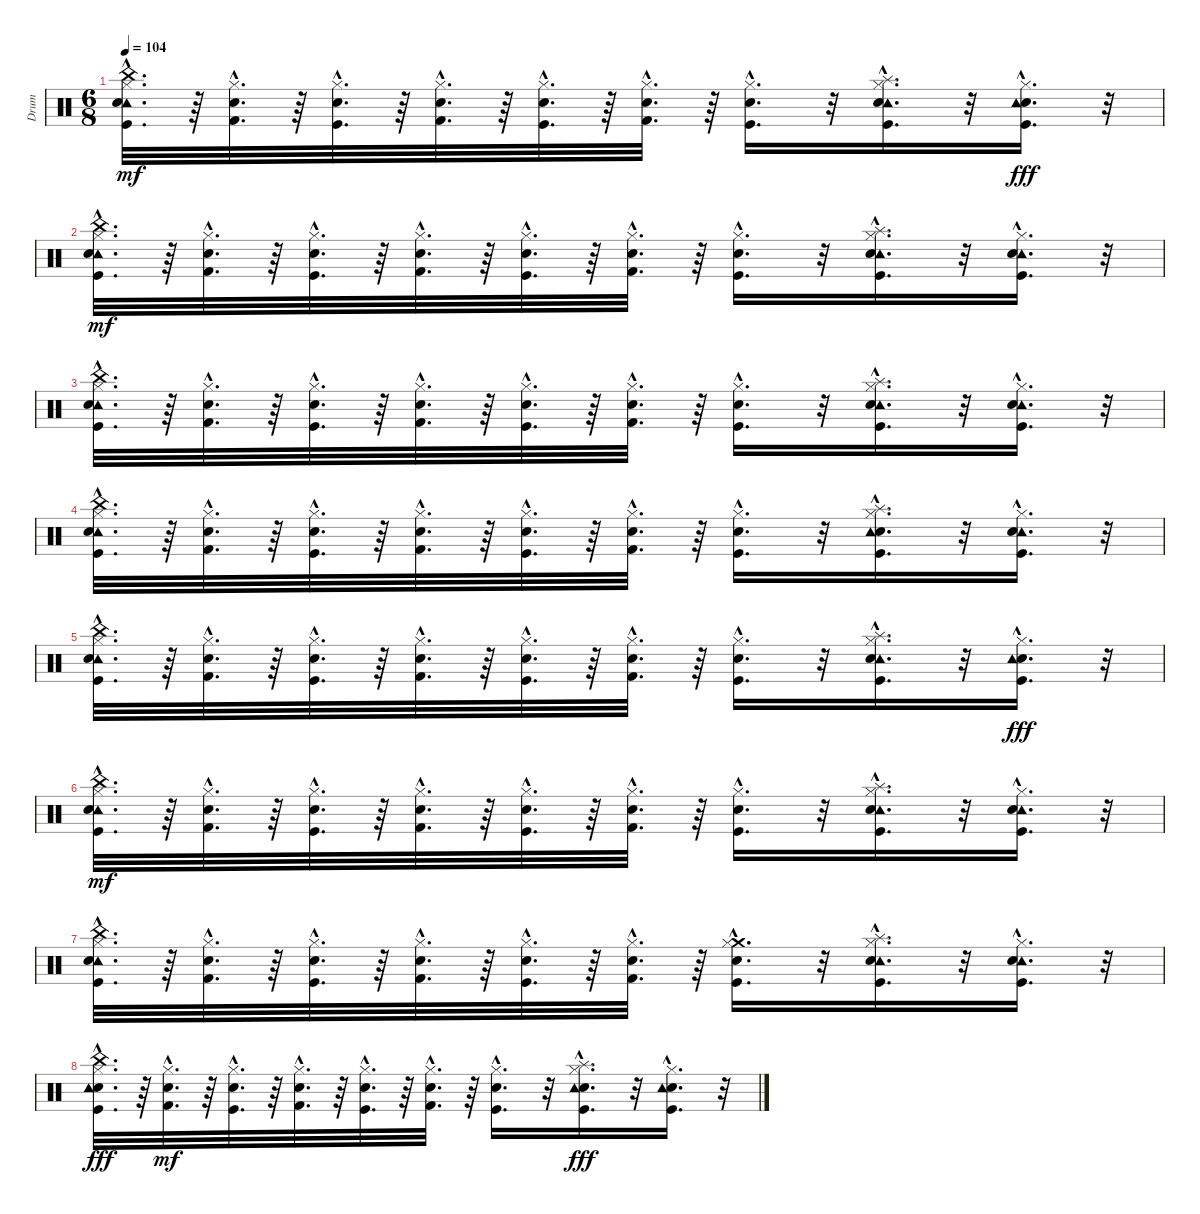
\track ("Drum" "Drum") {instrument percussion}
\staff {score}
\articulation defaults
\ts (6 8)
\tempo 104
\clef neutral
\ks c
("Tambourine (hit)"{hac} "China (hit)"{hac} "Hi-Hat (closed)"{hac} "Snare (hit) 2"{hac} "Kick (hit)"{hac}).32{d dy mf} r.64 ("Hi-Hat (closed)"{hac} "Kick (hit) 2"{hac} "Electric Snare (hit)"{hac}).32{d} r.64 ("Hi-Hat (closed)"{hac} "Kick (hit)"{hac} "Snare (hit) 2"{hac}).32{d} r.64 ("Kick (hit) 2"{hac} "Electric Snare (hit)"{hac} "Hi-Hat (closed)"{hac}).32{d} r.64 ("Kick (hit)"{hac} "Hi-Hat (closed)"{hac} "Snare (hit) 2"{hac}).32{d} r.64 ("Electric Snare (hit)"{hac} "Hi-Hat (closed)"{hac} "Kick (hit) 2"{hac}).32{d} r.64 ("Hi-Hat (closed)"{hac} "Kick (hit)"{hac} "Snare (hit) 2"{hac}).16{d} r.32 ("Tambourine (hit)"{hac} "Snare (hit) 2"{hac} "Kick (hit)"{hac} "Splash (hit)"{hac} "Hi-Hat (closed)"{hac}).16{d} r.32 ("Hi-Hat (closed)"{hac} "Kick (hit)"{hac} "Snare (hit) 2"{hac} "Tambourine (hit)"{hac}).16{d dy fff} r.32 |
("Tambourine (hit)"{hac} "Snare (hit) 2"{hac} "Kick (hit)"{hac} "Hi-Hat (closed)"{hac} "China (hit)"{hac}).32{d dy mf} r.64 ("Electric Snare (hit)"{hac} "Kick (hit) 2"{hac} "Hi-Hat (closed)"{hac}).32{d} r.64 ("Snare (hit) 2"{hac} "Kick (hit)"{hac} "Hi-Hat (closed)"{hac}).32{d} r.64 ("Electric Snare (hit)"{hac} "Kick (hit) 2"{hac} "Hi-Hat (closed)"{hac}).32{d} r.64 ("Snare (hit) 2"{hac} "Kick (hit)"{hac} "Hi-Hat (closed)"{hac}).32{d} r.64 ("Electric Snare (hit)"{hac} "Kick (hit) 2"{hac} "Hi-Hat (closed)"{hac}).32{d} r.64 ("Snare (hit) 2"{hac} "Kick (hit)"{hac} "Hi-Hat (closed)"{hac}).16{d} r.32 ("Tambourine (hit)"{hac} "Snare (hit) 2"{hac} "Splash (hit)"{hac} "Kick (hit)"{hac} "Hi-Hat (closed)"{hac}).16{d} r.32 ("Tambourine (hit)"{hac} "Snare (hit) 2"{hac} "Kick (hit)"{hac} "Hi-Hat (closed)"{hac}).16{d} r.32 |
("Tambourine (hit)"{hac} "Snare (hit) 2"{hac} "Kick (hit)"{hac} "Hi-Hat (closed)"{hac} "China (hit)"{hac}).32{d} r.64 ("Electric Snare (hit)"{hac} "Kick (hit) 2"{hac} "Hi-Hat (closed)"{hac}).32{d} r.64 ("Snare (hit) 2"{hac} "Kick (hit)"{hac} "Hi-Hat (closed)"{hac}).32{d} r.64 ("Electric Snare (hit)"{hac} "Kick (hit) 2"{hac} "Hi-Hat (closed)"{hac}).32{d} r.64 ("Snare (hit) 2"{hac} "Kick (hit)"{hac} "Hi-Hat (closed)"{hac}).32{d} r.64 ("Electric Snare (hit)"{hac} "Kick (hit) 2"{hac} "Hi-Hat (closed)"{hac}).32{d} r.64 ("Snare (hit) 2"{hac} "Kick (hit)"{hac} "Hi-Hat (closed)"{hac}).16{d} r.32 ("Tambourine (hit)"{hac} "Snare (hit) 2"{hac} "Splash (hit)"{hac} "Kick (hit)"{hac} "Hi-Hat (closed)"{hac}).16{d} r.32 ("Tambourine (hit)"{hac} "Snare (hit) 2"{hac} "Kick (hit)"{hac} "Hi-Hat (closed)"{hac}).16{d} r.32 |
("Hi-Hat (closed)"{hac} "Kick (hit)"{hac} "Tambourine (hit)"{hac} "Snare (hit) 2"{hac} "China (hit)"{hac}).32{d} r.64 ("Hi-Hat (closed)"{hac} "Kick (hit) 2"{hac} "Electric Snare (hit)"{hac}).32{d} r.64 ("Snare (hit) 2"{hac} "Kick (hit)"{hac} "Hi-Hat (closed)"{hac}).32{d} r.64 ("Hi-Hat (closed)"{hac} "Electric Snare (hit)"{hac} "Kick (hit) 2"{hac}).32{d} r.64 ("Hi-Hat (closed)"{hac} "Snare (hit) 2"{hac} "Kick (hit)"{hac}).32{d} r.64 ("Kick (hit) 2"{hac} "Electric Snare (hit)"{hac} "Hi-Hat (closed)"{hac}).32{d} r.64 ("Kick (hit)"{hac} "Snare (hit) 2"{hac} "Hi-Hat (closed)"{hac}).16{d} r.32 ("Kick (hit)"{hac} "Snare (hit) 2"{hac} "Hi-Hat (closed)"{hac} "Tambourine (hit)"{hac} "Splash (hit)"{hac}).16{d} r.32 ("Tambourine (hit)"{hac} "Kick (hit)"{hac} "Snare (hit) 2"{hac} "Hi-Hat (closed)"{hac}).16{d} r.32 |
("Tambourine (hit)"{hac} "China (hit)"{hac} "Hi-Hat (closed)"{hac} "Snare (hit) 2"{hac} "Kick (hit)"{hac}).32{d} r.64 ("Hi-Hat (closed)"{hac} "Kick (hit) 2"{hac} "Electric Snare (hit)"{hac}).32{d} r.64 ("Hi-Hat (closed)"{hac} "Kick (hit)"{hac} "Snare (hit) 2"{hac}).32{d} r.64 ("Kick (hit) 2"{hac} "Electric Snare (hit)"{hac} "Hi-Hat (closed)"{hac}).32{d} r.64 ("Kick (hit)"{hac} "Hi-Hat (closed)"{hac} "Snare (hit) 2"{hac}).32{d} r.64 ("Electric Snare (hit)"{hac} "Hi-Hat (closed)"{hac} "Kick (hit) 2"{hac}).32{d} r.64 ("Hi-Hat (closed)"{hac} "Kick (hit)"{hac} "Snare (hit) 2"{hac}).16{d} r.32 ("Tambourine (hit)"{hac} "Snare (hit) 2"{hac} "Kick (hit)"{hac} "Splash (hit)"{hac} "Hi-Hat (closed)"{hac}).16{d} r.32 ("Hi-Hat (closed)"{hac} "Kick (hit)"{hac} "Snare (hit) 2"{hac} "Tambourine (hit)"{hac}).16{d dy fff} r.32 |
("Tambourine (hit)"{hac} "Snare (hit) 2"{hac} "Kick (hit)"{hac} "Hi-Hat (closed)"{hac} "China (hit)"{hac}).32{d dy mf} r.64 ("Electric Snare (hit)"{hac} "Kick (hit) 2"{hac} "Hi-Hat (closed)"{hac}).32{d} r.64 ("Snare (hit) 2"{hac} "Kick (hit)"{hac} "Hi-Hat (closed)"{hac}).32{d} r.64 ("Electric Snare (hit)"{hac} "Kick (hit) 2"{hac} "Hi-Hat (closed)"{hac}).32{d} r.64 ("Snare (hit) 2"{hac} "Kick (hit)"{hac} "Hi-Hat (closed)"{hac}).32{d} r.64 ("Electric Snare (hit)"{hac} "Kick (hit) 2"{hac} "Hi-Hat (closed)"{hac}).32{d} r.64 ("Snare (hit) 2"{hac} "Kick (hit)"{hac} "Hi-Hat (closed)"{hac}).16{d} r.32 ("Tambourine (hit)"{hac} "Snare (hit) 2"{hac} "Splash (hit)"{hac} "Kick (hit)"{hac} "Hi-Hat (closed)"{hac}).16{d} r.32 ("Tambourine (hit)"{hac} "Snare (hit) 2"{hac} "Kick (hit)"{hac} "Hi-Hat (closed)"{hac}).16{d} r.32 |
("Tambourine (hit)"{hac} "Snare (hit) 2"{hac} "Kick (hit)"{hac} "Hi-Hat (closed)"{hac} "China (hit)"{hac}).32{d} r.64 ("Electric Snare (hit)"{hac} "Kick (hit) 2"{hac} "Hi-Hat (closed)"{hac}).32{d} r.64 ("Snare (hit) 2"{hac} "Kick (hit)"{hac} "Hi-Hat (closed)"{hac}).32{d} r.64 ("Electric Snare (hit)"{hac} "Kick (hit) 2"{hac} "Hi-Hat (closed)"{hac}).32{d} r.64 ("Snare (hit) 2"{hac} "Kick (hit)"{hac} "Hi-Hat (closed)"{hac}).32{d} r.64 ("Electric Snare (hit)"{hac} "Kick (hit) 2"{hac} "Hi-Hat (closed)"{hac}).32{d} r.64 ("Crash medium (hit)"{hac} "Snare (hit) 2"{hac} "Kick (hit)"{hac} "Hi-Hat (closed)"{hac}).16{d} r.32 ("Tambourine (hit)"{hac} "Snare (hit) 2"{hac} "Splash (hit)"{hac} "Kick (hit)"{hac} "Hi-Hat (closed)"{hac}).16{d} r.32 ("Tambourine (hit)"{hac} "Snare (hit) 2"{hac} "Kick (hit)"{hac} "Hi-Hat (closed)"{hac}).16{d} r.32 |
("China (hit)"{hac} "Hi-Hat (closed)"{hac} "Kick (hit)"{hac} "Snare (hit) 2"{hac} "Tambourine (hit)"{hac}).32{d dy fff} r.64 ("Hi-Hat (closed)"{hac} "Kick (hit) 2"{hac} "Electric Snare (hit)"{hac}).32{d dy mf} r.64 ("Hi-Hat (closed)"{hac} "Kick (hit)"{hac} "Snare (hit) 2"{hac}).32{d} r.64 ("Hi-Hat (closed)"{hac} "Kick (hit) 2"{hac} "Electric Snare (hit)"{hac}).32{d} r.64 ("Hi-Hat (closed)"{hac} "Kick (hit)"{hac} "Snare (hit) 2"{hac}).32{d} r.64 ("Hi-Hat (closed)"{hac} "Kick (hit) 2"{hac} "Electric Snare (hit)"{hac}).32{d} r.64 ("Hi-Hat (closed)"{hac} "Kick (hit)"{hac} "Snare (hit) 2"{hac}).16{d} r.32 ("Hi-Hat (closed)"{hac} "Kick (hit)"{hac} "Splash (hit)"{hac} "Snare (hit) 2"{hac} "Tambourine (hit)"{hac}).16{d dy fff} r.32 ("Hi-Hat (closed)"{hac} "Kick (hit)"{hac} "Snare (hit) 2"{hac} "Tambourine (hit)"{hac}).16{d} r.32
